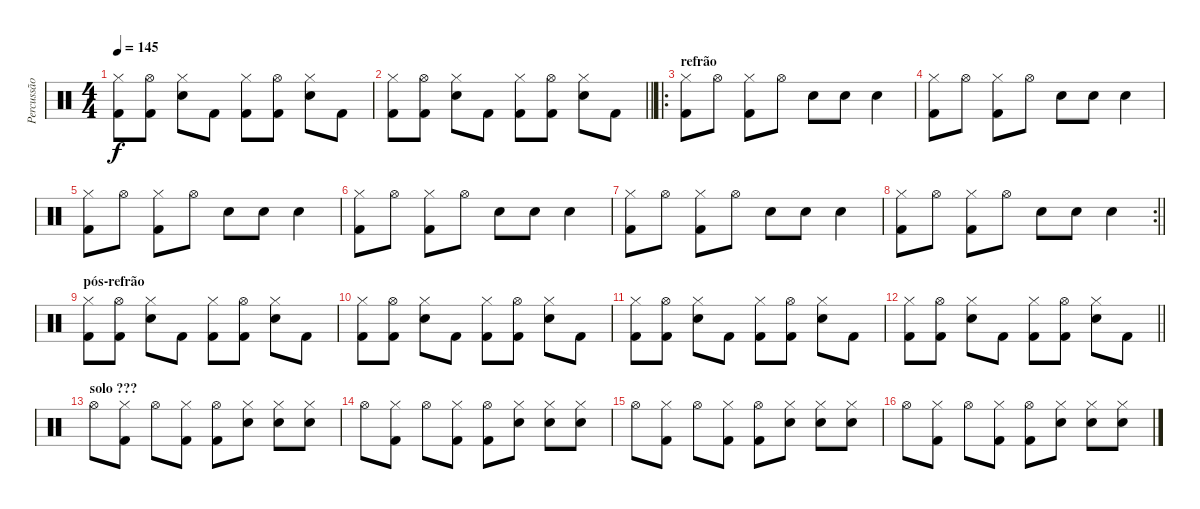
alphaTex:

\track ("Percussão" "Percussão") {instrument percussion}
\staff {score}
\articulation defaults
\ts (4 4)
\tempo 145
\clef neutral
\ks c
("Hi-Hat (closed)" "Kick (hit) 2").8{dy f} ("Hi-Hat (open)" "Kick (hit) 2").8 ("Hi-Hat (closed)" "Snare (hit) 2").8 "Kick (hit) 2".8 ("Hi-Hat (closed)" "Kick (hit) 2").8 ("Hi-Hat (open)" "Kick (hit) 2").8 ("Hi-Hat (closed)" "Snare (hit) 2").8 "Kick (hit) 2".8 |
\barLineRight lightlight
("Hi-Hat (closed)" "Kick (hit) 2").8 ("Hi-Hat (open)" "Kick (hit) 2").8 ("Hi-Hat (closed)" "Snare (hit) 2").8 "Kick (hit) 2".8 ("Hi-Hat (closed)" "Kick (hit) 2").8 ("Hi-Hat (open)" "Kick (hit) 2").8 ("Hi-Hat (closed)" "Snare (hit) 2").8 "Kick (hit) 2".8 |
\ro
\section ("" "refrão")
("Hi-Hat (closed)" "Kick (hit) 2").8 "Hi-Hat (open)".8 ("Hi-Hat (closed)" "Kick (hit) 2").8 "Hi-Hat (open)".8 "Snare (hit) 2".8 "Snare (hit) 2".8 "Snare (hit) 2".4 |
("Hi-Hat (closed)" "Kick (hit) 2").8 "Hi-Hat (open)".8 ("Hi-Hat (closed)" "Kick (hit) 2").8 "Hi-Hat (open)".8 "Snare (hit) 2".8 "Snare (hit) 2".8 "Snare (hit) 2".4 |
("Hi-Hat (closed)" "Kick (hit) 2").8 "Hi-Hat (open)".8 ("Hi-Hat (closed)" "Kick (hit) 2").8 "Hi-Hat (open)".8 "Snare (hit) 2".8 "Snare (hit) 2".8 "Snare (hit) 2".4 |
("Hi-Hat (closed)" "Kick (hit) 2").8 "Hi-Hat (open)".8 ("Hi-Hat (closed)" "Kick (hit) 2").8 "Hi-Hat (open)".8 "Snare (hit) 2".8 "Snare (hit) 2".8 "Snare (hit) 2".4 |
("Hi-Hat (closed)" "Kick (hit) 2").8 "Hi-Hat (open)".8 ("Hi-Hat (closed)" "Kick (hit) 2").8 "Hi-Hat (open)".8 "Snare (hit) 2".8 "Snare (hit) 2".8 "Snare (hit) 2".4 |
\rc 2
\barLineRight lightlight
("Hi-Hat (closed)" "Kick (hit) 2").8 "Hi-Hat (open)".8 ("Hi-Hat (closed)" "Kick (hit) 2").8 "Hi-Hat (open)".8 "Snare (hit) 2".8 "Snare (hit) 2".8 "Snare (hit) 2".4 |
\section ("" "pós-refrão")
("Hi-Hat (closed)" "Kick (hit) 2").8 ("Hi-Hat (open)" "Kick (hit) 2").8 ("Hi-Hat (closed)" "Snare (hit) 2").8 "Kick (hit) 2".8 ("Hi-Hat (closed)" "Kick (hit) 2").8 ("Hi-Hat (open)" "Kick (hit) 2").8 ("Hi-Hat (closed)" "Snare (hit) 2").8 "Kick (hit) 2".8 |
("Hi-Hat (closed)" "Kick (hit) 2").8 ("Hi-Hat (open)" "Kick (hit) 2").8 ("Hi-Hat (closed)" "Snare (hit) 2").8 "Kick (hit) 2".8 ("Hi-Hat (closed)" "Kick (hit) 2").8 ("Hi-Hat (open)" "Kick (hit) 2").8 ("Hi-Hat (closed)" "Snare (hit) 2").8 "Kick (hit) 2".8 |
("Hi-Hat (closed)" "Kick (hit) 2").8 ("Hi-Hat (open)" "Kick (hit) 2").8 ("Hi-Hat (closed)" "Snare (hit) 2").8 "Kick (hit) 2".8 ("Hi-Hat (closed)" "Kick (hit) 2").8 ("Hi-Hat (open)" "Kick (hit) 2").8 ("Hi-Hat (closed)" "Snare (hit) 2").8 "Kick (hit) 2".8 |
\barLineRight lightlight
("Hi-Hat (closed)" "Kick (hit) 2").8 ("Hi-Hat (open)" "Kick (hit) 2").8 ("Hi-Hat (closed)" "Snare (hit) 2").8 "Kick (hit) 2".8 ("Hi-Hat (closed)" "Kick (hit) 2").8 ("Hi-Hat (open)" "Kick (hit) 2").8 ("Hi-Hat (closed)" "Snare (hit) 2").8 "Kick (hit) 2".8 |
\section ("" "solo ???")
"Hi-Hat (open)".8 ("Hi-Hat (closed)" "Kick (hit) 2").8 "Hi-Hat (open)".8 ("Hi-Hat (closed)" "Kick (hit) 2").8 ("Hi-Hat (open)" "Kick (hit) 2").8 ("Hi-Hat (closed)" "Snare (hit) 2").8 ("Hi-Hat (closed)" "Snare (hit) 2").8 ("Hi-Hat (closed)" "Snare (hit) 2").8 |
"Hi-Hat (open)".8 ("Hi-Hat (closed)" "Kick (hit) 2").8 "Hi-Hat (open)".8 ("Hi-Hat (closed)" "Kick (hit) 2").8 ("Hi-Hat (open)" "Kick (hit) 2").8 ("Hi-Hat (closed)" "Snare (hit) 2").8 ("Hi-Hat (closed)" "Snare (hit) 2").8 ("Hi-Hat (closed)" "Snare (hit) 2").8 |
"Hi-Hat (open)".8 ("Hi-Hat (closed)" "Kick (hit) 2").8 "Hi-Hat (open)".8 ("Hi-Hat (closed)" "Kick (hit) 2").8 ("Hi-Hat (open)" "Kick (hit) 2").8 ("Hi-Hat (closed)" "Snare (hit) 2").8 ("Hi-Hat (closed)" "Snare (hit) 2").8 ("Hi-Hat (closed)" "Snare (hit) 2").8 |
"Hi-Hat (open)".8 ("Hi-Hat (closed)" "Kick (hit) 2").8 "Hi-Hat (open)".8 ("Hi-Hat (closed)" "Kick (hit) 2").8 ("Hi-Hat (open)" "Kick (hit) 2").8 ("Hi-Hat (closed)" "Snare (hit) 2").8 ("Hi-Hat (closed)" "Snare (hit) 2").8 ("Hi-Hat (closed)" "Snare (hit) 2").8
